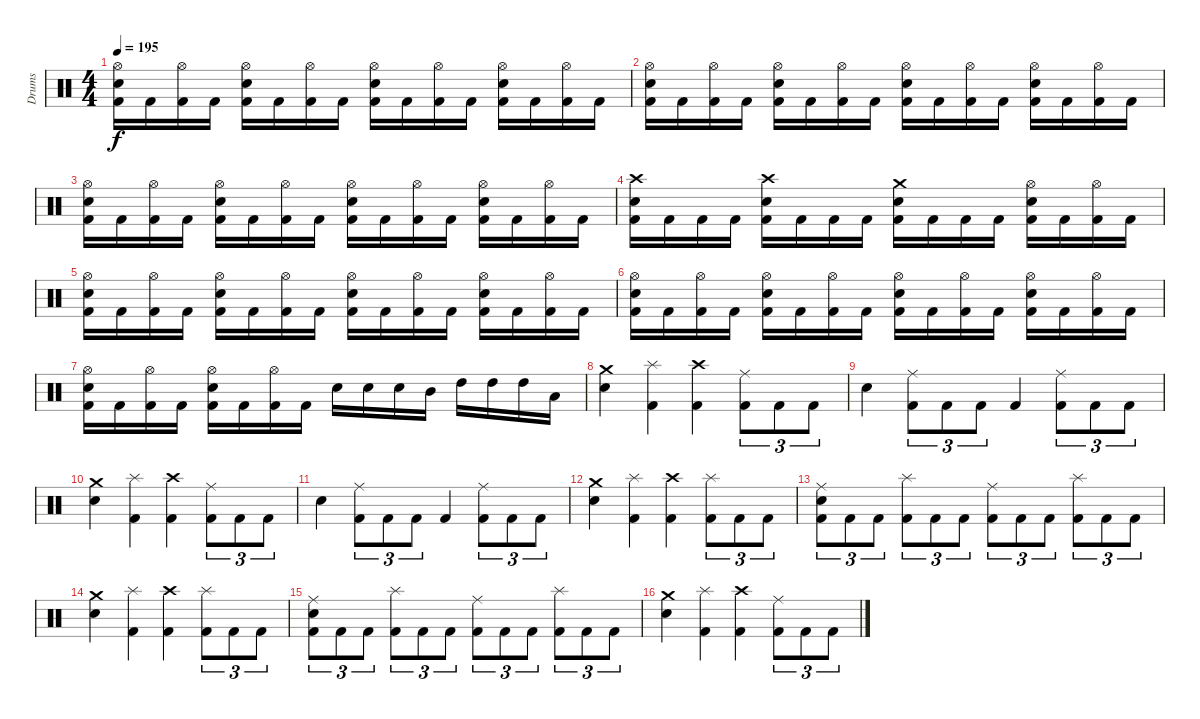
\track ("Drums" "Drums") {instrument percussion}
\staff {score}
\articulation defaults
\ts (4 4)
\tempo 195
\clef neutral
\ks c
("Hi-Hat (open)" "Electric Snare (hit)" "Kick (hit) 2").16{dy f} "Kick (hit) 2".16 ("Hi-Hat (open)" "Kick (hit) 2").16 "Kick (hit) 2".16 ("Hi-Hat (open)" "Electric Snare (hit)" "Kick (hit) 2").16 "Kick (hit) 2".16 ("Hi-Hat (open)" "Kick (hit) 2").16 "Kick (hit) 2".16 ("Hi-Hat (open)" "Electric Snare (hit)" "Kick (hit) 2").16 "Kick (hit) 2".16 ("Hi-Hat (open)" "Kick (hit) 2").16 "Kick (hit) 2".16 ("Hi-Hat (open)" "Electric Snare (hit)" "Kick (hit) 2").16 "Kick (hit) 2".16 ("Hi-Hat (open)" "Kick (hit) 2").16 "Kick (hit) 2".16 |
("Hi-Hat (open)" "Electric Snare (hit)" "Kick (hit) 2").16 "Kick (hit) 2".16 ("Hi-Hat (open)" "Kick (hit) 2").16 "Kick (hit) 2".16 ("Hi-Hat (open)" "Electric Snare (hit)" "Kick (hit) 2").16 "Kick (hit) 2".16 ("Hi-Hat (open)" "Kick (hit) 2").16 "Kick (hit) 2".16 ("Hi-Hat (open)" "Electric Snare (hit)" "Kick (hit) 2").16 "Kick (hit) 2".16 ("Hi-Hat (open)" "Kick (hit) 2").16 "Kick (hit) 2".16 ("Hi-Hat (open)" "Electric Snare (hit)" "Kick (hit) 2").16 "Kick (hit) 2".16 ("Hi-Hat (open)" "Kick (hit) 2").16 "Kick (hit) 2".16 |
("Hi-Hat (open)" "Electric Snare (hit)" "Kick (hit) 2").16 "Kick (hit) 2".16 ("Hi-Hat (open)" "Kick (hit) 2").16 "Kick (hit) 2".16 ("Hi-Hat (open)" "Electric Snare (hit)" "Kick (hit) 2").16 "Kick (hit) 2".16 ("Hi-Hat (open)" "Kick (hit) 2").16 "Kick (hit) 2".16 ("Hi-Hat (open)" "Electric Snare (hit)" "Kick (hit) 2").16 "Kick (hit) 2".16 ("Hi-Hat (open)" "Kick (hit) 2").16 "Kick (hit) 2".16 ("Hi-Hat (open)" "Electric Snare (hit)" "Kick (hit) 2").16 "Kick (hit) 2".16 ("Hi-Hat (open)" "Kick (hit) 2").16 "Kick (hit) 2".16 |
("Crash high (hit)" "Electric Snare (hit)" "Kick (hit) 2").16 "Kick (hit) 2".16 "Kick (hit) 2".16 "Kick (hit) 2".16 ("Crash high (hit)" "Electric Snare (hit)" "Kick (hit) 2").16 "Kick (hit) 2".16 "Kick (hit) 2".16 "Kick (hit) 2".16 ("Crash medium (hit)" "Electric Snare (hit)" "Kick (hit) 2").16 "Kick (hit) 2".16 "Kick (hit) 2".16 "Kick (hit) 2".16 ("Hi-Hat (open)" "Electric Snare (hit)" "Kick (hit) 2").16 "Kick (hit) 2".16 ("Hi-Hat (open)" "Kick (hit) 2").16 "Kick (hit) 2".16 |
("Hi-Hat (open)" "Electric Snare (hit)" "Kick (hit) 2").16 "Kick (hit) 2".16 ("Hi-Hat (open)" "Kick (hit) 2").16 "Kick (hit) 2".16 ("Hi-Hat (open)" "Electric Snare (hit)" "Kick (hit) 2").16 "Kick (hit) 2".16 ("Hi-Hat (open)" "Kick (hit) 2").16 "Kick (hit) 2".16 ("Hi-Hat (open)" "Electric Snare (hit)" "Kick (hit) 2").16 "Kick (hit) 2".16 ("Hi-Hat (open)" "Kick (hit) 2").16 "Kick (hit) 2".16 ("Hi-Hat (open)" "Electric Snare (hit)" "Kick (hit) 2").16 "Kick (hit) 2".16 ("Hi-Hat (open)" "Kick (hit) 2").16 "Kick (hit) 2".16 |
("Hi-Hat (open)" "Electric Snare (hit)" "Kick (hit) 2").16 "Kick (hit) 2".16 ("Hi-Hat (open)" "Kick (hit) 2").16 "Kick (hit) 2".16 ("Hi-Hat (open)" "Electric Snare (hit)" "Kick (hit) 2").16 "Kick (hit) 2".16 ("Hi-Hat (open)" "Kick (hit) 2").16 "Kick (hit) 2".16 ("Hi-Hat (open)" "Electric Snare (hit)" "Kick (hit) 2").16 "Kick (hit) 2".16 ("Hi-Hat (open)" "Kick (hit) 2").16 "Kick (hit) 2".16 ("Hi-Hat (open)" "Electric Snare (hit)" "Kick (hit) 2").16 "Kick (hit) 2".16 ("Hi-Hat (open)" "Kick (hit) 2").16 "Kick (hit) 2".16 |
("Hi-Hat (open)" "Electric Snare (hit)" "Kick (hit) 2").16 "Kick (hit) 2".16 ("Hi-Hat (open)" "Kick (hit) 2").16 "Kick (hit) 2".16 ("Hi-Hat (open)" "Electric Snare (hit)" "Kick (hit) 2").16 "Kick (hit) 2".16 ("Hi-Hat (open)" "Kick (hit) 2").16 "Kick (hit) 2".16 "Electric Snare (hit)".16 "Electric Snare (hit)".16 "Electric Snare (hit)".16 "Mid Tom (hit)".16 "High Tom (hit)".16 "High Tom (hit)".16 "High Tom (hit)".16 "Low Tom (hit)".16 |
("Crash medium (hit)" "Electric Snare (hit)").4 ("Splash (hit)" "Kick (hit) 2").4 ("Crash high (hit)" "Kick (hit) 2").4 ("Ride (middle)" "Kick (hit) 2").8{tu (3 2)} "Kick (hit) 2".8{tu (3 2)} "Kick (hit) 2".8{tu (3 2)} |
"Electric Snare (hit)".4 ("Ride (middle)" "Kick (hit) 2").8{tu (3 2)} "Kick (hit) 2".8{tu (3 2)} "Kick (hit) 2".8{tu (3 2)} "Kick (hit) 2".4 ("Ride (middle)" "Kick (hit) 2").8{tu (3 2)} "Kick (hit) 2".8{tu (3 2)} "Kick (hit) 2".8{tu (3 2)} |
("Crash medium (hit)" "Electric Snare (hit)").4 ("Splash (hit)" "Kick (hit) 2").4 ("Crash high (hit)" "Kick (hit) 2").4 ("Ride (middle)" "Kick (hit) 2").8{tu (3 2)} "Kick (hit) 2".8{tu (3 2)} "Kick (hit) 2".8{tu (3 2)} |
"Electric Snare (hit)".4 ("Ride (middle)" "Kick (hit) 2").8{tu (3 2)} "Kick (hit) 2".8{tu (3 2)} "Kick (hit) 2".8{tu (3 2)} "Kick (hit) 2".4 ("Ride (middle)" "Kick (hit) 2").8{tu (3 2)} "Kick (hit) 2".8{tu (3 2)} "Kick (hit) 2".8{tu (3 2)} |
("Crash medium (hit)" "Electric Snare (hit)").4 ("Splash (hit)" "Kick (hit) 2").4 ("Crash high (hit)" "Kick (hit) 2").4 ("Splash (hit)" "Kick (hit) 2").8{tu (3 2)} "Kick (hit) 2".8{tu (3 2)} "Kick (hit) 2".8{tu (3 2)} |
("Ride (middle)" "Electric Snare (hit)" "Kick (hit) 2").8{tu (3 2)} "Kick (hit) 2".8{tu (3 2)} "Kick (hit) 2".8{tu (3 2)} ("Splash (hit)" "Kick (hit) 2").8{tu (3 2)} "Kick (hit) 2".8{tu (3 2)} "Kick (hit) 2".8{tu (3 2)} ("Ride (middle)" "Kick (hit) 2").8{tu (3 2)} "Kick (hit) 2".8{tu (3 2)} "Kick (hit) 2".8{tu (3 2)} ("Splash (hit)" "Kick (hit) 2").8{tu (3 2)} "Kick (hit) 2".8{tu (3 2)} "Kick (hit) 2".8{tu (3 2)} |
("Crash medium (hit)" "Electric Snare (hit)").4 ("Splash (hit)" "Kick (hit) 2").4 ("Crash high (hit)" "Kick (hit) 2").4 ("Splash (hit)" "Kick (hit) 2").8{tu (3 2)} "Kick (hit) 2".8{tu (3 2)} "Kick (hit) 2".8{tu (3 2)} |
("Ride (middle)" "Electric Snare (hit)" "Kick (hit) 2").8{tu (3 2)} "Kick (hit) 2".8{tu (3 2)} "Kick (hit) 2".8{tu (3 2)} ("Splash (hit)" "Kick (hit) 2").8{tu (3 2)} "Kick (hit) 2".8{tu (3 2)} "Kick (hit) 2".8{tu (3 2)} ("Ride (middle)" "Kick (hit) 2").8{tu (3 2)} "Kick (hit) 2".8{tu (3 2)} "Kick (hit) 2".8{tu (3 2)} ("Splash (hit)" "Kick (hit) 2").8{tu (3 2)} "Kick (hit) 2".8{tu (3 2)} "Kick (hit) 2".8{tu (3 2)} |
("Crash medium (hit)" "Electric Snare (hit)").4 ("Splash (hit)" "Kick (hit) 2").4 ("Crash high (hit)" "Kick (hit) 2").4 ("Ride (middle)" "Kick (hit) 2").8{tu (3 2)} "Kick (hit) 2".8{tu (3 2)} "Kick (hit) 2".8{tu (3 2)}
